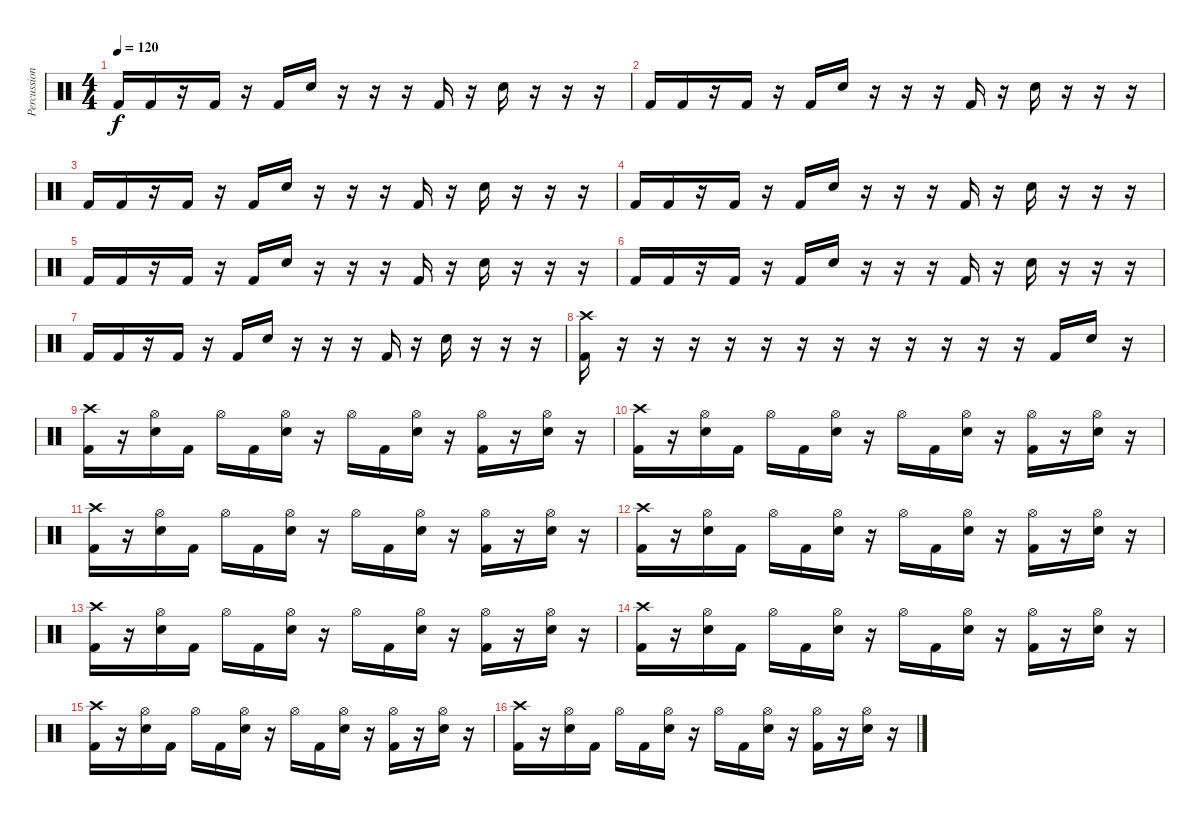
\track ("Percussion" "Percussion") {instrument percussion}
\staff {score}
\articulation defaults
\ts (4 4)
\tempo 120
\clef neutral
\ks c "Kick (hit) 2".16{dy f} "Kick (hit) 2".16
r.16 "Kick (hit) 2".16 r.16 "Kick (hit) 2".16 "Electric Snare (hit)".16 r.16 r.16 r.16 "Kick (hit) 2".16 r.16 "Electric Snare (hit)".16 r.16 r.16 r.16 |
"Kick (hit) 2".16 "Kick (hit) 2".16 r.16 "Kick (hit) 2".16 r.16 "Kick (hit) 2".16 "Electric Snare (hit)".16 r.16 r.16 r.16 "Kick (hit) 2".16 r.16 "Electric Snare (hit)".16 r.16 r.16 r.16 |
"Kick (hit) 2".16 "Kick (hit) 2".16 r.16 "Kick (hit) 2".16 r.16 "Kick (hit) 2".16 "Electric Snare (hit)".16 r.16 r.16 r.16 "Kick (hit) 2".16 r.16 "Electric Snare (hit)".16 r.16 r.16 r.16 |
"Kick (hit) 2".16 "Kick (hit) 2".16 r.16 "Kick (hit) 2".16 r.16 "Kick (hit) 2".16 "Electric Snare (hit)".16 r.16 r.16 r.16 "Kick (hit) 2".16 r.16 "Electric Snare (hit)".16 r.16 r.16 r.16 |
"Kick (hit) 2".16 "Kick (hit) 2".16 r.16 "Kick (hit) 2".16 r.16 "Kick (hit) 2".16 "Electric Snare (hit)".16 r.16 r.16 r.16 "Kick (hit) 2".16 r.16 "Electric Snare (hit)".16 r.16 r.16 r.16 |
"Kick (hit) 2".16 "Kick (hit) 2".16 r.16 "Kick (hit) 2".16 r.16 "Kick (hit) 2".16 "Electric Snare (hit)".16 r.16 r.16 r.16 "Kick (hit) 2".16 r.16 "Electric Snare (hit)".16 r.16 r.16 r.16 |
"Kick (hit) 2".16 "Kick (hit) 2".16 r.16 "Kick (hit) 2".16 r.16 "Kick (hit) 2".16 "Electric Snare (hit)".16 r.16 r.16 r.16 "Kick (hit) 2".16 r.16 "Electric Snare (hit)".16 r.16 r.16 r.16 |
("Crash high (hit)" "Kick (hit) 2").16 r.16 r.16 r.16 r.16 r.16 r.16 r.16 r.16 r.16 r.16 r.16 r.16 "Kick (hit) 2".16 "Electric Snare (hit)".16 r.16 |
("Crash high (hit)" "Kick (hit) 2").16 r.16 ("Hi-Hat (open)" "Electric Snare (hit)").16 "Kick (hit) 2".16 "Hi-Hat (open)".16 "Kick (hit) 2".16 ("Hi-Hat (open)" "Electric Snare (hit)").16 r.16 "Hi-Hat (open)".16 "Kick (hit) 2".16 ("Hi-Hat (open)" "Electric Snare (hit)").16 r.16 ("Hi-Hat (open)" "Kick (hit) 2").16 r.16 ("Hi-Hat (open)" "Electric Snare (hit)").16 r.16 |
("Crash high (hit)" "Kick (hit) 2").16 r.16 ("Hi-Hat (open)" "Electric Snare (hit)").16 "Kick (hit) 2".16 "Hi-Hat (open)".16 "Kick (hit) 2".16 ("Hi-Hat (open)" "Electric Snare (hit)").16 r.16 "Hi-Hat (open)".16 "Kick (hit) 2".16 ("Hi-Hat (open)" "Electric Snare (hit)").16 r.16 ("Hi-Hat (open)" "Kick (hit) 2").16 r.16 ("Hi-Hat (open)" "Electric Snare (hit)").16 r.16 |
("Crash high (hit)" "Kick (hit) 2").16 r.16 ("Hi-Hat (open)" "Electric Snare (hit)").16 "Kick (hit) 2".16 "Hi-Hat (open)".16 "Kick (hit) 2".16 ("Hi-Hat (open)" "Electric Snare (hit)").16 r.16 "Hi-Hat (open)".16 "Kick (hit) 2".16 ("Hi-Hat (open)" "Electric Snare (hit)").16 r.16 ("Hi-Hat (open)" "Kick (hit) 2").16 r.16 ("Hi-Hat (open)" "Electric Snare (hit)").16 r.16 |
("Crash high (hit)" "Kick (hit) 2").16 r.16 ("Hi-Hat (open)" "Electric Snare (hit)").16 "Kick (hit) 2".16 "Hi-Hat (open)".16 "Kick (hit) 2".16 ("Hi-Hat (open)" "Electric Snare (hit)").16 r.16 "Hi-Hat (open)".16 "Kick (hit) 2".16 ("Hi-Hat (open)" "Electric Snare (hit)").16 r.16 ("Hi-Hat (open)" "Kick (hit) 2").16 r.16 ("Hi-Hat (open)" "Electric Snare (hit)").16 r.16 |
("Crash high (hit)" "Kick (hit) 2").16 r.16 ("Hi-Hat (open)" "Electric Snare (hit)").16 "Kick (hit) 2".16 "Hi-Hat (open)".16 "Kick (hit) 2".16 ("Hi-Hat (open)" "Electric Snare (hit)").16 r.16 "Hi-Hat (open)".16 "Kick (hit) 2".16 ("Hi-Hat (open)" "Electric Snare (hit)").16 r.16 ("Hi-Hat (open)" "Kick (hit) 2").16 r.16 ("Hi-Hat (open)" "Electric Snare (hit)").16 r.16 |
("Crash high (hit)" "Kick (hit) 2").16 r.16 ("Hi-Hat (open)" "Electric Snare (hit)").16 "Kick (hit) 2".16 "Hi-Hat (open)".16 "Kick (hit) 2".16 ("Hi-Hat (open)" "Electric Snare (hit)").16 r.16 "Hi-Hat (open)".16 "Kick (hit) 2".16 ("Hi-Hat (open)" "Electric Snare (hit)").16 r.16 ("Hi-Hat (open)" "Kick (hit) 2").16 r.16 ("Hi-Hat (open)" "Electric Snare (hit)").16 r.16 |
("Crash high (hit)" "Kick (hit) 2").16 r.16 ("Hi-Hat (open)" "Electric Snare (hit)").16 "Kick (hit) 2".16 "Hi-Hat (open)".16 "Kick (hit) 2".16 ("Hi-Hat (open)" "Electric Snare (hit)").16 r.16 "Hi-Hat (open)".16 "Kick (hit) 2".16 ("Hi-Hat (open)" "Electric Snare (hit)").16 r.16 ("Hi-Hat (open)" "Kick (hit) 2").16 r.16 ("Hi-Hat (open)" "Electric Snare (hit)").16 r.16 |
("Crash high (hit)" "Kick (hit) 2").16 r.16 ("Hi-Hat (open)" "Electric Snare (hit)").16 "Kick (hit) 2".16 "Hi-Hat (open)".16 "Kick (hit) 2".16 ("Hi-Hat (open)" "Electric Snare (hit)").16 r.16 "Hi-Hat (open)".16 "Kick (hit) 2".16 ("Hi-Hat (open)" "Electric Snare (hit)").16 r.16 ("Hi-Hat (open)" "Kick (hit) 2").16 r.16 ("Hi-Hat (open)" "Electric Snare (hit)").16 r.16
